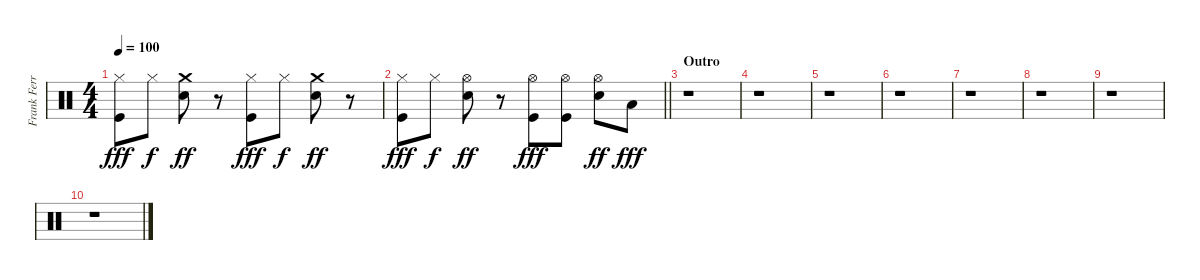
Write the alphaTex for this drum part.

\track ("Frank Ferrer" "Frank Ferr") {instrument percussion}
\staff {score}
\articulation defaults
\ts (4 4)
\tempo 100
\clef neutral
\ks c
("Kick (hit)" "Hi-Hat (closed)").8{dy fff} "Hi-Hat (closed)".8{dy f} ("Snare (hit) 2" "Crash medium (hit)").8{dy ff} r.8 ("Kick (hit)" "Hi-Hat (closed)").8{dy fff} "Hi-Hat (closed)".8{dy f} ("Snare (hit) 2" "Crash medium (hit)").8{dy ff} r.8 |
\barLineRight lightlight
("Kick (hit)" "Hi-Hat (closed)").8{dy fff} "Hi-Hat (closed)".8{dy f} ("Snare (hit) 2" "Hi-Hat (open)").8{dy ff} r.8 ("Kick (hit)" "Hi-Hat (open)").8{dy fff} ("Kick (hit)" "Hi-Hat (open)").8 ("Snare (hit) 2" "Hi-Hat (open)").8{dy ff} "Low Tom (hit)".8{dy fff} |
\section ("" "Outro")
r.1 |
r.1 |
r.1 |
r.1 |
r.1 |
r.1 |
r.1 |
r.1
